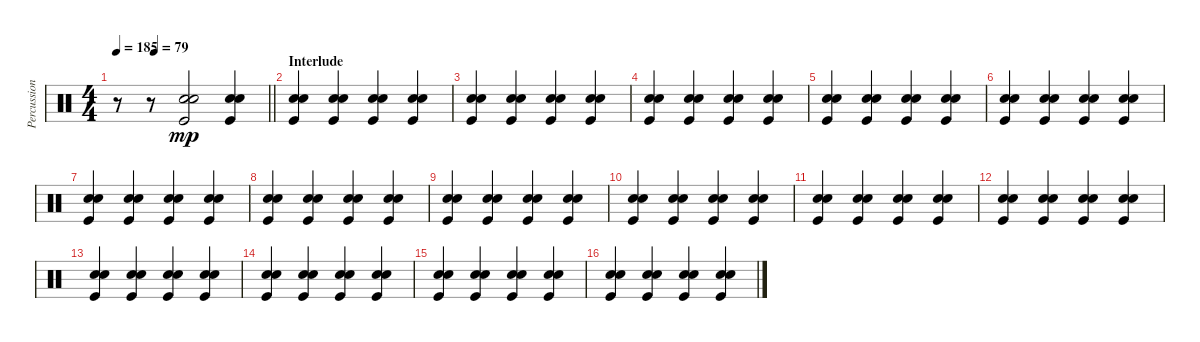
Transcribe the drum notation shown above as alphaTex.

\track ("Percussion" "Percussion") {instrument percussion}
\staff {score}
\articulation defaults
\ts (4 4)
\tempo 185
\tempo (79 0.25)
\clef neutral
\barLineRight lightlight
\ks c
r.8{dy fff} r.8 ("Electric Snare (hit)" "Snare (hit) 2" "Kick (hit)").2{dy mp} ("Electric Snare (hit)" "Snare (hit) 2" "Kick (hit)").4 |
\section ("" "Interlude")
("Electric Snare (hit)" "Snare (hit) 2" "Kick (hit)").4 ("Electric Snare (hit)" "Snare (hit) 2" "Kick (hit)").4 ("Electric Snare (hit)" "Snare (hit) 2" "Kick (hit)").4 ("Electric Snare (hit)" "Snare (hit) 2" "Kick (hit)").4 |
("Electric Snare (hit)" "Snare (hit) 2" "Kick (hit)").4 ("Electric Snare (hit)" "Snare (hit) 2" "Kick (hit)").4 ("Electric Snare (hit)" "Snare (hit) 2" "Kick (hit)").4 ("Electric Snare (hit)" "Snare (hit) 2" "Kick (hit)").4 |
("Electric Snare (hit)" "Snare (hit) 2" "Kick (hit)").4 ("Electric Snare (hit)" "Snare (hit) 2" "Kick (hit)").4 ("Electric Snare (hit)" "Snare (hit) 2" "Kick (hit)").4 ("Electric Snare (hit)" "Snare (hit) 2" "Kick (hit)").4 |
("Electric Snare (hit)" "Snare (hit) 2" "Kick (hit)").4 ("Electric Snare (hit)" "Snare (hit) 2" "Kick (hit)").4 ("Electric Snare (hit)" "Snare (hit) 2" "Kick (hit)").4 ("Electric Snare (hit)" "Snare (hit) 2" "Kick (hit)").4 |
("Electric Snare (hit)" "Snare (hit) 2" "Kick (hit)").4 ("Electric Snare (hit)" "Snare (hit) 2" "Kick (hit)").4 ("Electric Snare (hit)" "Snare (hit) 2" "Kick (hit)").4 ("Electric Snare (hit)" "Snare (hit) 2" "Kick (hit)").4 |
("Electric Snare (hit)" "Snare (hit) 2" "Kick (hit)").4 ("Electric Snare (hit)" "Snare (hit) 2" "Kick (hit)").4 ("Electric Snare (hit)" "Snare (hit) 2" "Kick (hit)").4 ("Electric Snare (hit)" "Snare (hit) 2" "Kick (hit)").4 |
("Electric Snare (hit)" "Snare (hit) 2" "Kick (hit)").4 ("Electric Snare (hit)" "Snare (hit) 2" "Kick (hit)").4 ("Electric Snare (hit)" "Snare (hit) 2" "Kick (hit)").4 ("Electric Snare (hit)" "Snare (hit) 2" "Kick (hit)").4 |
("Electric Snare (hit)" "Snare (hit) 2" "Kick (hit)").4 ("Electric Snare (hit)" "Snare (hit) 2" "Kick (hit)").4 ("Electric Snare (hit)" "Snare (hit) 2" "Kick (hit)").4 ("Electric Snare (hit)" "Snare (hit) 2" "Kick (hit)").4 |
("Electric Snare (hit)" "Snare (hit) 2" "Kick (hit)").4 ("Electric Snare (hit)" "Snare (hit) 2" "Kick (hit)").4 ("Electric Snare (hit)" "Snare (hit) 2" "Kick (hit)").4 ("Electric Snare (hit)" "Snare (hit) 2" "Kick (hit)").4 |
("Electric Snare (hit)" "Snare (hit) 2" "Kick (hit)").4 ("Electric Snare (hit)" "Snare (hit) 2" "Kick (hit)").4 ("Electric Snare (hit)" "Snare (hit) 2" "Kick (hit)").4 ("Electric Snare (hit)" "Snare (hit) 2" "Kick (hit)").4 |
("Electric Snare (hit)" "Snare (hit) 2" "Kick (hit)").4 ("Electric Snare (hit)" "Snare (hit) 2" "Kick (hit)").4 ("Electric Snare (hit)" "Snare (hit) 2" "Kick (hit)").4 ("Electric Snare (hit)" "Snare (hit) 2" "Kick (hit)").4 |
("Electric Snare (hit)" "Snare (hit) 2" "Kick (hit)").4 ("Electric Snare (hit)" "Snare (hit) 2" "Kick (hit)").4 ("Electric Snare (hit)" "Snare (hit) 2" "Kick (hit)").4 ("Electric Snare (hit)" "Snare (hit) 2" "Kick (hit)").4 |
("Electric Snare (hit)" "Snare (hit) 2" "Kick (hit)").4 ("Electric Snare (hit)" "Snare (hit) 2" "Kick (hit)").4 ("Electric Snare (hit)" "Snare (hit) 2" "Kick (hit)").4 ("Electric Snare (hit)" "Snare (hit) 2" "Kick (hit)").4 |
("Electric Snare (hit)" "Snare (hit) 2" "Kick (hit)").4 ("Electric Snare (hit)" "Snare (hit) 2" "Kick (hit)").4 ("Electric Snare (hit)" "Snare (hit) 2" "Kick (hit)").4 ("Electric Snare (hit)" "Snare (hit) 2" "Kick (hit)").4 |
("Electric Snare (hit)" "Snare (hit) 2" "Kick (hit)").4 ("Electric Snare (hit)" "Snare (hit) 2" "Kick (hit)").4 ("Electric Snare (hit)" "Snare (hit) 2" "Kick (hit)").4 ("Electric Snare (hit)" "Snare (hit) 2" "Kick (hit)").4
